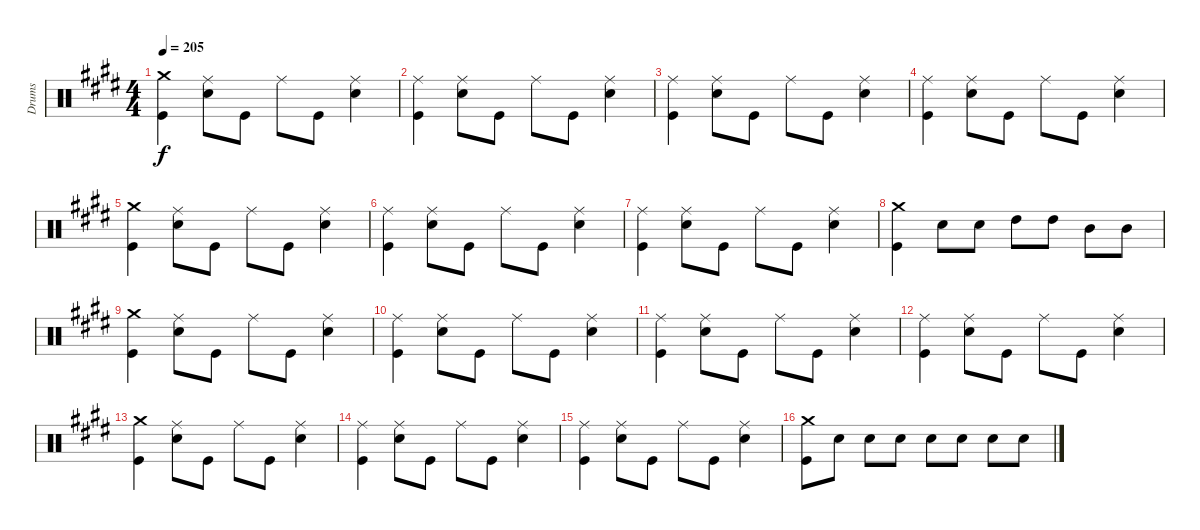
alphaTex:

\track ("Drums" "Drums") {instrument percussion}
\staff {score}
\articulation defaults
\ts (4 4)
\tempo 205
\clef neutral
\ks e
("Crash medium (hit)" "Kick (hit)").4{dy f} ("Ride (middle)" "Electric Snare (hit)").8 "Kick (hit)".8 "Ride (middle)".8 "Kick (hit)".8 ("Ride (middle)" "Electric Snare (hit)").4 |
("Ride (middle)" "Kick (hit)").4 ("Ride (middle)" "Electric Snare (hit)").8 "Kick (hit)".8 "Ride (middle)".8 "Kick (hit)".8 ("Ride (middle)" "Electric Snare (hit)").4 |
("Ride (middle)" "Kick (hit)").4 ("Ride (middle)" "Electric Snare (hit)").8 "Kick (hit)".8 "Ride (middle)".8 "Kick (hit)".8 ("Ride (middle)" "Electric Snare (hit)").4 |
("Ride (middle)" "Kick (hit)").4 ("Ride (middle)" "Electric Snare (hit)").8 "Kick (hit)".8 "Ride (middle)".8 "Kick (hit)".8 ("Ride (middle)" "Electric Snare (hit)").4 |
("Crash medium (hit)" "Kick (hit)").4 ("Ride (middle)" "Electric Snare (hit)").8 "Kick (hit)".8 "Ride (middle)".8 "Kick (hit)".8 ("Ride (middle)" "Electric Snare (hit)").4 |
("Ride (middle)" "Kick (hit)").4 ("Ride (middle)" "Electric Snare (hit)").8 "Kick (hit)".8 "Ride (middle)".8 "Kick (hit)".8 ("Ride (middle)" "Electric Snare (hit)").4 |
("Ride (middle)" "Kick (hit)").4 ("Ride (middle)" "Electric Snare (hit)").8 "Kick (hit)".8 "Ride (middle)".8 "Kick (hit)".8 ("Ride (middle)" "Electric Snare (hit)").4 |
("Crash medium (hit)" "Kick (hit)").4 "Electric Snare (hit)".8 "Electric Snare (hit)".8 "High Tom (hit)".8 "High Tom (hit)".8 "Mid Tom (hit)".8 "Mid Tom (hit)".8 |
("Crash medium (hit)" "Kick (hit)").4 ("Ride (middle)" "Electric Snare (hit)").8 "Kick (hit)".8 "Ride (middle)".8 "Kick (hit)".8 ("Ride (middle)" "Electric Snare (hit)").4 |
("Ride (middle)" "Kick (hit)").4 ("Ride (middle)" "Electric Snare (hit)").8 "Kick (hit)".8 "Ride (middle)".8 "Kick (hit)".8 ("Ride (middle)" "Electric Snare (hit)").4 |
("Ride (middle)" "Kick (hit)").4 ("Ride (middle)" "Electric Snare (hit)").8 "Kick (hit)".8 "Ride (middle)".8 "Kick (hit)".8 ("Ride (middle)" "Electric Snare (hit)").4 |
("Ride (middle)" "Kick (hit)").4 ("Ride (middle)" "Electric Snare (hit)").8 "Kick (hit)".8 "Ride (middle)".8 "Kick (hit)".8 ("Ride (middle)" "Electric Snare (hit)").4 |
("Crash medium (hit)" "Kick (hit)").4 ("Ride (middle)" "Electric Snare (hit)").8 "Kick (hit)".8 "Ride (middle)".8 "Kick (hit)".8 ("Ride (middle)" "Electric Snare (hit)").4 |
("Ride (middle)" "Kick (hit)").4 ("Ride (middle)" "Electric Snare (hit)").8 "Kick (hit)".8 "Ride (middle)".8 "Kick (hit)".8 ("Ride (middle)" "Electric Snare (hit)").4 |
("Ride (middle)" "Kick (hit)").4 ("Ride (middle)" "Electric Snare (hit)").8 "Kick (hit)".8 "Ride (middle)".8 "Kick (hit)".8 ("Ride (middle)" "Electric Snare (hit)").4 |
("Crash medium (hit)" "Kick (hit)").8 "Electric Snare (hit)".8 "Electric Snare (hit)".8 "Electric Snare (hit)".8 "Electric Snare (hit)".8 "Electric Snare (hit)".8 "Electric Snare (hit)".8 "Electric Snare (hit)".8
